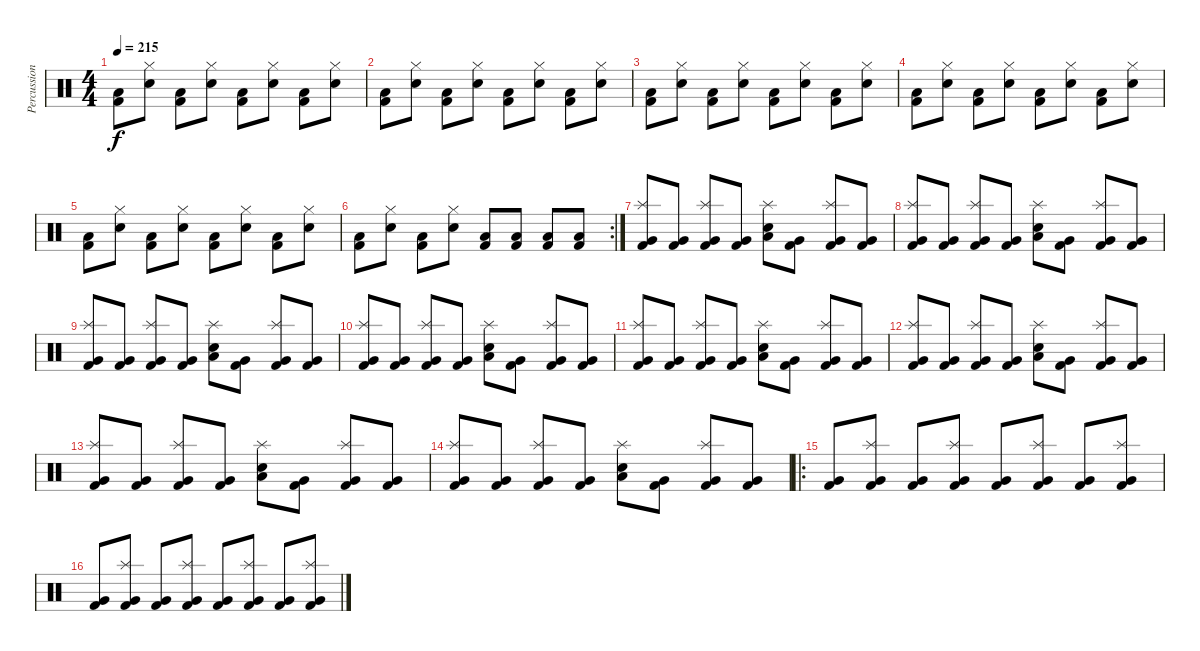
\track ("Percussion" "Percussion") {instrument percussion}
\staff {score}
\articulation defaults
\ts (4 4)
\tempo 215
\clef neutral
\ks c
("Low Floor Tom (hit)" "Kick (hit) 2").8{dy f} ("Hi-Hat (closed)" "Electric Snare (hit)").8 ("Low Floor Tom (hit)" "Kick (hit) 2").8 ("Hi-Hat (closed)" "Electric Snare (hit)").8 ("Low Floor Tom (hit)" "Kick (hit) 2").8 ("Hi-Hat (closed)" "Electric Snare (hit)").8 ("Low Floor Tom (hit)" "Kick (hit) 2").8 ("Hi-Hat (closed)" "Electric Snare (hit)").8 |
("Low Floor Tom (hit)" "Kick (hit) 2").8 ("Hi-Hat (closed)" "Electric Snare (hit)").8 ("Low Floor Tom (hit)" "Kick (hit) 2").8 ("Hi-Hat (closed)" "Electric Snare (hit)").8 ("Low Floor Tom (hit)" "Kick (hit) 2").8 ("Hi-Hat (closed)" "Electric Snare (hit)").8 ("Low Floor Tom (hit)" "Kick (hit) 2").8 ("Hi-Hat (closed)" "Electric Snare (hit)").8 |
("Low Floor Tom (hit)" "Kick (hit) 2").8 ("Hi-Hat (closed)" "Electric Snare (hit)").8 ("Low Floor Tom (hit)" "Kick (hit) 2").8 ("Hi-Hat (closed)" "Electric Snare (hit)").8 ("Low Floor Tom (hit)" "Kick (hit) 2").8 ("Hi-Hat (closed)" "Electric Snare (hit)").8 ("Low Floor Tom (hit)" "Kick (hit) 2").8 ("Hi-Hat (closed)" "Electric Snare (hit)").8 |
("Low Floor Tom (hit)" "Kick (hit) 2").8 ("Hi-Hat (closed)" "Electric Snare (hit)").8 ("Low Floor Tom (hit)" "Kick (hit) 2").8 ("Hi-Hat (closed)" "Electric Snare (hit)").8 ("Low Floor Tom (hit)" "Kick (hit) 2").8 ("Hi-Hat (closed)" "Electric Snare (hit)").8 ("Low Floor Tom (hit)" "Kick (hit) 2").8 ("Hi-Hat (closed)" "Electric Snare (hit)").8 |
("Low Floor Tom (hit)" "Kick (hit) 2").8 ("Hi-Hat (closed)" "Electric Snare (hit)").8 ("Low Floor Tom (hit)" "Kick (hit) 2").8 ("Hi-Hat (closed)" "Electric Snare (hit)").8 ("Low Floor Tom (hit)" "Kick (hit) 2").8 ("Hi-Hat (closed)" "Electric Snare (hit)").8 ("Low Floor Tom (hit)" "Kick (hit) 2").8 ("Hi-Hat (closed)" "Electric Snare (hit)").8 |
\rc 2
("Low Floor Tom (hit)" "Kick (hit) 2").8 ("Hi-Hat (closed)" "Electric Snare (hit)").8 ("Low Floor Tom (hit)" "Kick (hit) 2").8 ("Hi-Hat (closed)" "Electric Snare (hit)").8 ("Low Floor Tom (hit)" "Kick (hit) 2").8 ("Low Floor Tom (hit)" "Kick (hit) 2").8 ("Low Floor Tom (hit)" "Kick (hit) 2").8 ("Low Floor Tom (hit)" "Kick (hit) 2").8 |
("Splash (hit)" "Kick (hit) 2" "Very Low Tom (hit)").8 ("Kick (hit) 2" "Very Low Tom (hit)").8 ("Splash (hit)" "Kick (hit) 2" "Very Low Tom (hit)").8 ("Kick (hit) 2" "Very Low Tom (hit)").8 ("Splash (hit)" "Low Floor Tom (hit)" "Electric Snare (hit)").8 ("Kick (hit) 2" "Very Low Tom (hit)").8 ("Splash (hit)" "Kick (hit) 2" "Very Low Tom (hit)").8 ("Kick (hit) 2" "Very Low Tom (hit)").8 |
("Splash (hit)" "Kick (hit) 2" "Very Low Tom (hit)").8 ("Kick (hit) 2" "Very Low Tom (hit)").8 ("Splash (hit)" "Kick (hit) 2" "Very Low Tom (hit)").8 ("Kick (hit) 2" "Very Low Tom (hit)").8 ("Splash (hit)" "Low Floor Tom (hit)" "Electric Snare (hit)").8 ("Kick (hit) 2" "Very Low Tom (hit)").8 ("Splash (hit)" "Kick (hit) 2" "Very Low Tom (hit)").8 ("Kick (hit) 2" "Very Low Tom (hit)").8 |
("Splash (hit)" "Kick (hit) 2" "Very Low Tom (hit)").8 ("Kick (hit) 2" "Very Low Tom (hit)").8 ("Splash (hit)" "Kick (hit) 2" "Very Low Tom (hit)").8 ("Kick (hit) 2" "Very Low Tom (hit)").8 ("Splash (hit)" "Low Floor Tom (hit)" "Electric Snare (hit)").8 ("Kick (hit) 2" "Very Low Tom (hit)").8 ("Splash (hit)" "Kick (hit) 2" "Very Low Tom (hit)").8 ("Kick (hit) 2" "Very Low Tom (hit)").8 |
("Splash (hit)" "Kick (hit) 2" "Very Low Tom (hit)").8 ("Kick (hit) 2" "Very Low Tom (hit)").8 ("Splash (hit)" "Kick (hit) 2" "Very Low Tom (hit)").8 ("Kick (hit) 2" "Very Low Tom (hit)").8 ("Splash (hit)" "Low Floor Tom (hit)" "Electric Snare (hit)").8 ("Kick (hit) 2" "Very Low Tom (hit)").8 ("Splash (hit)" "Kick (hit) 2" "Very Low Tom (hit)").8 ("Kick (hit) 2" "Very Low Tom (hit)").8 |
("Splash (hit)" "Kick (hit) 2" "Very Low Tom (hit)").8 ("Kick (hit) 2" "Very Low Tom (hit)").8 ("Splash (hit)" "Kick (hit) 2" "Very Low Tom (hit)").8 ("Kick (hit) 2" "Very Low Tom (hit)").8 ("Splash (hit)" "Low Floor Tom (hit)" "Electric Snare (hit)").8 ("Kick (hit) 2" "Very Low Tom (hit)").8 ("Splash (hit)" "Kick (hit) 2" "Very Low Tom (hit)").8 ("Kick (hit) 2" "Very Low Tom (hit)").8 |
("Splash (hit)" "Kick (hit) 2" "Very Low Tom (hit)").8 ("Kick (hit) 2" "Very Low Tom (hit)").8 ("Splash (hit)" "Kick (hit) 2" "Very Low Tom (hit)").8 ("Kick (hit) 2" "Very Low Tom (hit)").8 ("Splash (hit)" "Low Floor Tom (hit)" "Electric Snare (hit)").8 ("Kick (hit) 2" "Very Low Tom (hit)").8 ("Splash (hit)" "Kick (hit) 2" "Very Low Tom (hit)").8 ("Kick (hit) 2" "Very Low Tom (hit)").8 |
("Splash (hit)" "Kick (hit) 2" "Very Low Tom (hit)").8 ("Kick (hit) 2" "Very Low Tom (hit)").8 ("Splash (hit)" "Kick (hit) 2" "Very Low Tom (hit)").8 ("Kick (hit) 2" "Very Low Tom (hit)").8 ("Splash (hit)" "Low Floor Tom (hit)" "Electric Snare (hit)").8 ("Kick (hit) 2" "Very Low Tom (hit)").8 ("Splash (hit)" "Kick (hit) 2" "Very Low Tom (hit)").8 ("Kick (hit) 2" "Very Low Tom (hit)").8 |
("Splash (hit)" "Kick (hit) 2" "Very Low Tom (hit)").8 ("Kick (hit) 2" "Very Low Tom (hit)").8 ("Splash (hit)" "Kick (hit) 2" "Very Low Tom (hit)").8 ("Kick (hit) 2" "Very Low Tom (hit)").8 ("Splash (hit)" "Low Floor Tom (hit)" "Electric Snare (hit)").8 ("Kick (hit) 2" "Very Low Tom (hit)").8 ("Splash (hit)" "Kick (hit) 2" "Very Low Tom (hit)").8 ("Kick (hit) 2" "Very Low Tom (hit)").8 |
\ro
("Kick (hit) 2" "Very Low Tom (hit)").8 ("Splash (hit)" "Kick (hit) 2" "Very Low Tom (hit)").8 ("Kick (hit) 2" "Very Low Tom (hit)").8 ("Splash (hit)" "Kick (hit) 2" "Very Low Tom (hit)").8 ("Kick (hit) 2" "Very Low Tom (hit)").8 ("Splash (hit)" "Kick (hit) 2" "Very Low Tom (hit)").8 ("Kick (hit) 2" "Very Low Tom (hit)").8 ("Splash (hit)" "Kick (hit) 2" "Very Low Tom (hit)").8 |
("Kick (hit) 2" "Very Low Tom (hit)").8 ("Splash (hit)" "Kick (hit) 2" "Very Low Tom (hit)").8 ("Kick (hit) 2" "Very Low Tom (hit)").8 ("Splash (hit)" "Kick (hit) 2" "Very Low Tom (hit)").8 ("Kick (hit) 2" "Very Low Tom (hit)").8 ("Splash (hit)" "Kick (hit) 2" "Very Low Tom (hit)").8 ("Kick (hit) 2" "Very Low Tom (hit)").8 ("Splash (hit)" "Kick (hit) 2" "Very Low Tom (hit)").8
